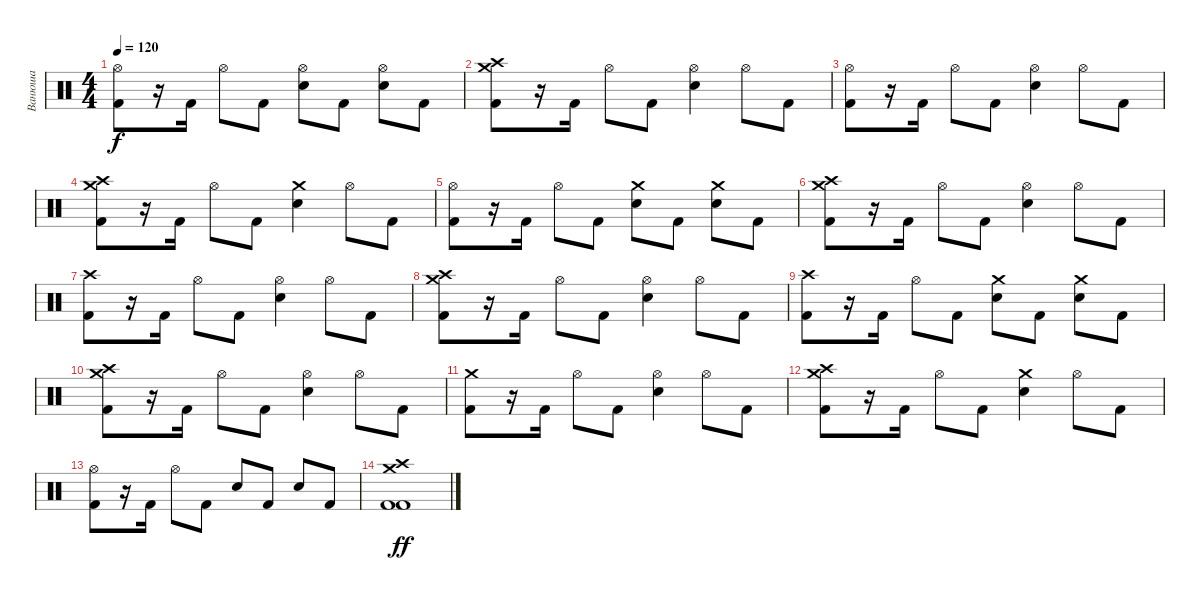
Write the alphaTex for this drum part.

\track ("Ванюша" "Ванюша") {instrument percussion}
\staff {score}
\articulation defaults
\ts (4 4)
\tempo 120
\clef neutral
\ks c
("Hi-Hat (open)" "Kick (hit) 2").8{dy f} r.16 "Kick (hit) 2".16 "Hi-Hat (open)".8 "Kick (hit) 2".8 ("Hi-Hat (open)" "Snare (hit) 2").8 "Kick (hit) 2".8 ("Hi-Hat (open)" "Snare (hit) 2").8 "Kick (hit) 2".8 |
("Crash medium (hit)" "Crash high (hit)" "Kick (hit) 2").8 r.16 "Kick (hit) 2".16 "Hi-Hat (open)".8 "Kick (hit) 2".8 ("Hi-Hat (open)" "Snare (hit) 2").4 "Hi-Hat (open)".8 "Kick (hit) 2".8 |
("Hi-Hat (open)" "Kick (hit) 2").8 r.16 "Kick (hit) 2".16 "Hi-Hat (open)".8 "Kick (hit) 2".8 ("Hi-Hat (open)" "Snare (hit) 2").4 "Hi-Hat (open)".8 "Kick (hit) 2".8 |
("Crash medium (hit)" "Crash high (hit)" "Kick (hit) 2").8 r.16 "Kick (hit) 2".16 "Hi-Hat (open)".8 "Kick (hit) 2".8 ("Crash medium (hit)" "Snare (hit) 2").4 "Hi-Hat (open)".8 "Kick (hit) 2".8 |
("Hi-Hat (open)" "Kick (hit) 2").8 r.16 "Kick (hit) 2".16 "Hi-Hat (open)".8 "Kick (hit) 2".8 ("Crash medium (hit)" "Snare (hit) 2").8 "Kick (hit) 2".8 ("Crash medium (hit)" "Snare (hit) 2").8 "Kick (hit) 2".8 |
("Crash medium (hit)" "Crash high (hit)" "Kick (hit) 2").8 r.16 "Kick (hit) 2".16 "Hi-Hat (open)".8 "Kick (hit) 2".8 ("Hi-Hat (open)" "Snare (hit) 2").4 "Hi-Hat (open)".8 "Kick (hit) 2".8 |
("Crash high (hit)" "Kick (hit) 2").8 r.16 "Kick (hit) 2".16 "Hi-Hat (open)".8 "Kick (hit) 2".8 ("Hi-Hat (open)" "Snare (hit) 2").4 "Hi-Hat (open)".8 "Kick (hit) 2".8 |
("Crash medium (hit)" "Crash high (hit)" "Kick (hit) 2").8 r.16 "Kick (hit) 2".16 "Hi-Hat (open)".8 "Kick (hit) 2".8 ("Hi-Hat (open)" "Snare (hit) 2").4 "Hi-Hat (open)".8 "Kick (hit) 2".8 |
("Crash high (hit)" "Kick (hit) 2").8 r.16 "Kick (hit) 2".16 "Hi-Hat (open)".8 "Kick (hit) 2".8 ("Crash medium (hit)" "Snare (hit) 2").8 "Kick (hit) 2".8 ("Crash medium (hit)" "Snare (hit) 2").8 "Kick (hit) 2".8 |
("Crash medium (hit)" "Crash high (hit)" "Kick (hit) 2").8 r.16 "Kick (hit) 2".16 "Hi-Hat (open)".8 "Kick (hit) 2".8 ("Hi-Hat (open)" "Snare (hit) 2").4 "Hi-Hat (open)".8 "Kick (hit) 2".8 |
("Crash medium (hit)" "Kick (hit) 2").8 r.16 "Kick (hit) 2".16 "Hi-Hat (open)".8 "Kick (hit) 2".8 ("Hi-Hat (open)" "Snare (hit) 2").4 "Hi-Hat (open)".8 "Kick (hit) 2".8 |
("Crash medium (hit)" "Crash high (hit)" "Kick (hit) 2").8 r.16 "Kick (hit) 2".16 "Hi-Hat (open)".8 "Kick (hit) 2".8 ("Crash medium (hit)" "Snare (hit) 2").4 "Hi-Hat (open)".8 "Kick (hit) 2".8 |
("Hi-Hat (open)" "Kick (hit) 2").8 r.16 "Kick (hit) 2".16 "Hi-Hat (open)".8 "Kick (hit) 2".8 "Snare (hit) 2".8 "Kick (hit) 2".8 "Snare (hit) 2".8 "Kick (hit) 2".8 |
("Crash medium (hit)" "Crash high (hit)" "Kick (hit) 2" "Kick (hit) 2").1{dy ff}
